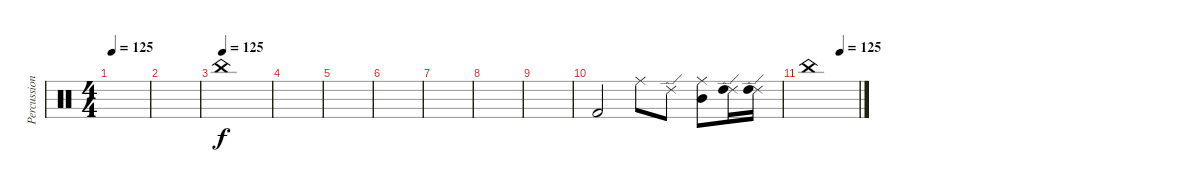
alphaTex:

\track ("Percussion" "Percussion") {instrument percussion}
\staff {score}
\articulation defaults
\ts (4 4)
\tempo 125
\clef neutral
\ks c
|
|
\tempo (125)
"China (hit)".1 |
|
|
|
|
|
|
"Kick (hit) 2".2 "Ride (middle)".8 "Ride (edge) 2".8 ("Ride (middle)" "Mid Tom (hit)").8 ("Ride (edge) 2" "High Tom (hit)").16 ("Ride (edge) 2" "High Tom (hit)").16 |
\tempo (125 0.625)
"China (hit)".1
